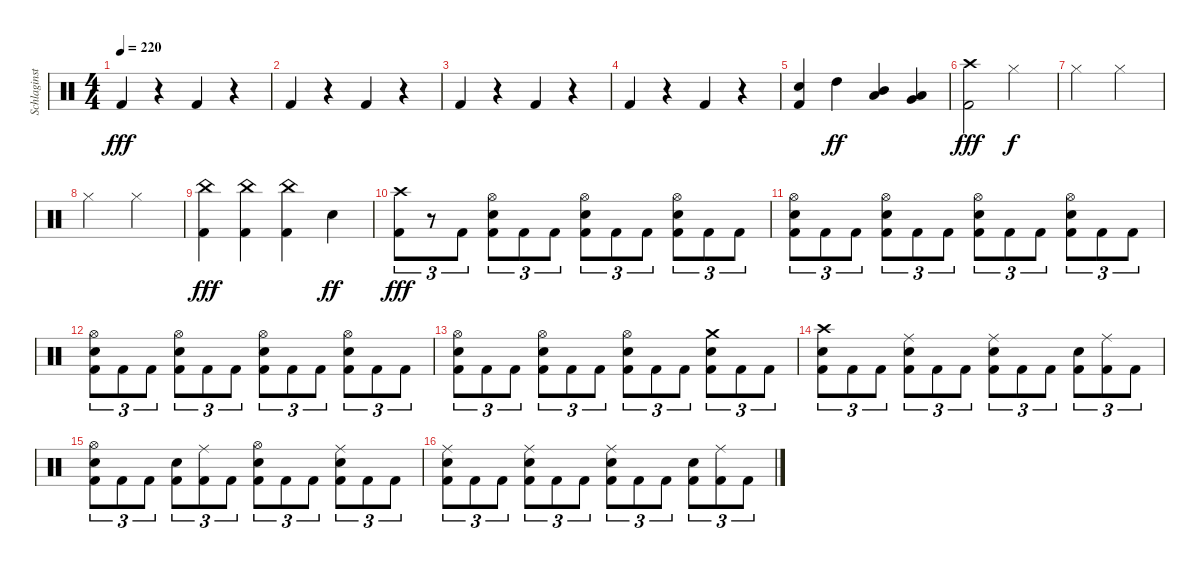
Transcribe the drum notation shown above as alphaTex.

\track ("Schlaginstrumente - Auswahl" "Schlaginst") {instrument percussion}
\staff {score}
\articulation defaults
\ts (4 4)
\tempo 220
\clef neutral
\ks c "Kick (hit) 2".4{dy fff}
r.4 "Kick (hit) 2".4 r.4 |
"Kick (hit) 2".4 r.4 "Kick (hit) 2".4 r.4 |
"Kick (hit) 2".4 r.4 "Kick (hit) 2".4 r.4 |
"Kick (hit) 2".4 r.4 "Kick (hit) 2".4 r.4 |
("Snare (hit) 2" "Kick (hit) 2").4 "High Tom (hit)".4{dy ff} ("Mid Tom (hit)" "Low Tom (hit)").4 ("Low Tom (hit)" "Very Low Tom (hit)").4 |
("Crash high (hit)" "Kick (hit) 2").2{dy fff} "Hi-Hat (closed)".2{dy f} |
"Hi-Hat (closed)".2 "Hi-Hat (closed)".2 |
"Hi-Hat (closed)".2 "Hi-Hat (closed)".2 |
("China (hit)" "Kick (hit) 2").4{dy fff} ("China (hit)" "Kick (hit) 2").4 ("China (hit)" "Kick (hit) 2").4 "Snare (hit) 2".4{dy ff} |
("Crash high (hit)" "Kick (hit) 2").8{tu (3 2) dy fff} r.8{tu (3 2)} "Kick (hit) 2".8{tu (3 2)} ("Hi-Hat (open)" "Snare (hit) 2" "Kick (hit) 2").8{tu (3 2)} "Kick (hit) 2".8{tu (3 2)} "Kick (hit) 2".8{tu (3 2)} ("Hi-Hat (open)" "Snare (hit) 2" "Kick (hit) 2").8{tu (3 2)} "Kick (hit) 2".8{tu (3 2)} "Kick (hit) 2".8{tu (3 2)} ("Hi-Hat (open)" "Snare (hit) 2" "Kick (hit) 2").8{tu (3 2)} "Kick (hit) 2".8{tu (3 2)} "Kick (hit) 2".8{tu (3 2)} |
("Hi-Hat (open)" "Snare (hit) 2" "Kick (hit) 2").8{tu (3 2)} "Kick (hit) 2".8{tu (3 2)} "Kick (hit) 2".8{tu (3 2)} ("Hi-Hat (open)" "Snare (hit) 2" "Kick (hit) 2").8{tu (3 2)} "Kick (hit) 2".8{tu (3 2)} "Kick (hit) 2".8{tu (3 2)} ("Hi-Hat (open)" "Snare (hit) 2" "Kick (hit) 2").8{tu (3 2)} "Kick (hit) 2".8{tu (3 2)} "Kick (hit) 2".8{tu (3 2)} ("Hi-Hat (open)" "Snare (hit) 2" "Kick (hit) 2").8{tu (3 2)} "Kick (hit) 2".8{tu (3 2)} "Kick (hit) 2".8{tu (3 2)} |
("Hi-Hat (open)" "Snare (hit) 2" "Kick (hit) 2").8{tu (3 2)} "Kick (hit) 2".8{tu (3 2)} "Kick (hit) 2".8{tu (3 2)} ("Hi-Hat (open)" "Snare (hit) 2" "Kick (hit) 2").8{tu (3 2)} "Kick (hit) 2".8{tu (3 2)} "Kick (hit) 2".8{tu (3 2)} ("Hi-Hat (open)" "Snare (hit) 2" "Kick (hit) 2").8{tu (3 2)} "Kick (hit) 2".8{tu (3 2)} "Kick (hit) 2".8{tu (3 2)} ("Hi-Hat (open)" "Snare (hit) 2" "Kick (hit) 2").8{tu (3 2)} "Kick (hit) 2".8{tu (3 2)} "Kick (hit) 2".8{tu (3 2)} |
("Hi-Hat (open)" "Snare (hit) 2" "Kick (hit) 2").8{tu (3 2)} "Kick (hit) 2".8{tu (3 2)} "Kick (hit) 2".8{tu (3 2)} ("Hi-Hat (open)" "Snare (hit) 2" "Kick (hit) 2").8{tu (3 2)} "Kick (hit) 2".8{tu (3 2)} "Kick (hit) 2".8{tu (3 2)} ("Hi-Hat (open)" "Snare (hit) 2" "Kick (hit) 2").8{tu (3 2)} "Kick (hit) 2".8{tu (3 2)} "Kick (hit) 2".8{tu (3 2)} ("Crash medium (hit)" "Snare (hit) 2" "Kick (hit) 2").8{tu (3 2)} "Kick (hit) 2".8{tu (3 2)} "Kick (hit) 2".8{tu (3 2)} |
("Crash high (hit)" "Snare (hit) 2" "Kick (hit) 2").8{tu (3 2)} "Kick (hit) 2".8{tu (3 2)} "Kick (hit) 2".8{tu (3 2)} ("Ride (middle)" "Snare (hit) 2" "Kick (hit) 2").8{tu (3 2)} "Kick (hit) 2".8{tu (3 2)} "Kick (hit) 2".8{tu (3 2)} ("Ride (middle)" "Snare (hit) 2" "Kick (hit) 2").8{tu (3 2)} "Kick (hit) 2".8{tu (3 2)} "Kick (hit) 2".8{tu (3 2)} ("Snare (hit) 2" "Kick (hit) 2").8{tu (3 2)} ("Ride (middle)" "Kick (hit) 2").8{tu (3 2)} "Kick (hit) 2".8{tu (3 2)} |
("Hi-Hat (open)" "Snare (hit) 2" "Kick (hit) 2").8{tu (3 2)} "Kick (hit) 2".8{tu (3 2)} "Kick (hit) 2".8{tu (3 2)} ("Snare (hit) 2" "Kick (hit) 2").8{tu (3 2)} ("Ride (middle)" "Kick (hit) 2").8{tu (3 2)} "Kick (hit) 2".8{tu (3 2)} ("Hi-Hat (open)" "Snare (hit) 2" "Kick (hit) 2").8{tu (3 2)} "Kick (hit) 2".8{tu (3 2)} "Kick (hit) 2".8{tu (3 2)} ("Ride (middle)" "Snare (hit) 2" "Kick (hit) 2").8{tu (3 2)} "Kick (hit) 2".8{tu (3 2)} "Kick (hit) 2".8{tu (3 2)} |
("Ride (middle)" "Snare (hit) 2" "Kick (hit) 2").8{tu (3 2)} "Kick (hit) 2".8{tu (3 2)} "Kick (hit) 2".8{tu (3 2)} ("Ride (middle)" "Snare (hit) 2" "Kick (hit) 2").8{tu (3 2)} "Kick (hit) 2".8{tu (3 2)} "Kick (hit) 2".8{tu (3 2)} ("Ride (middle)" "Snare (hit) 2" "Kick (hit) 2").8{tu (3 2)} "Kick (hit) 2".8{tu (3 2)} "Kick (hit) 2".8{tu (3 2)} ("Snare (hit) 2" "Kick (hit) 2").8{tu (3 2)} ("Ride (middle)" "Kick (hit) 2").8{tu (3 2)} "Kick (hit) 2".8{tu (3 2)}
